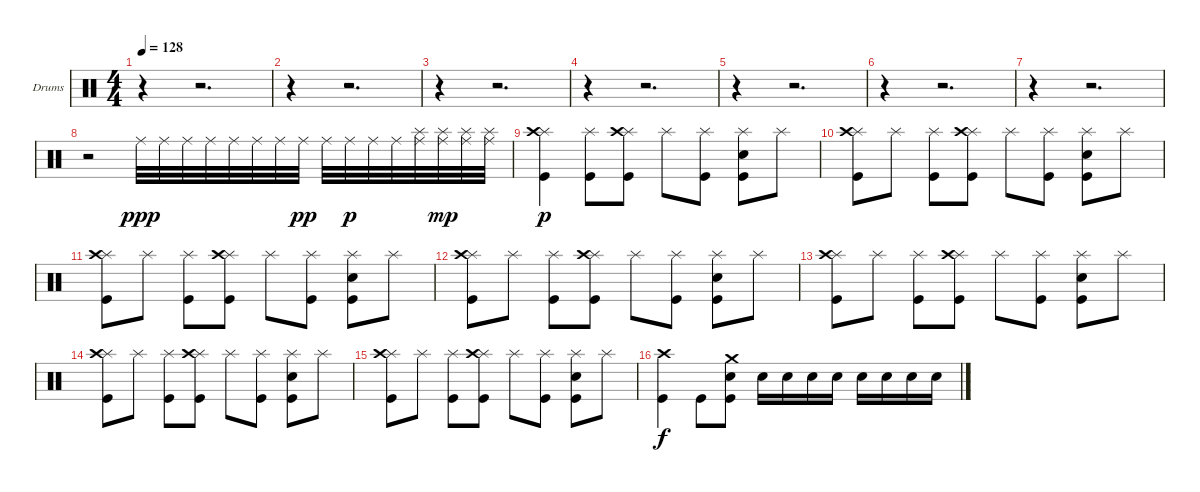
\defaultSystemsLayout 4
\bracketExtendMode nobrackets
\firstSystemTrackNameOrientation horizontal
\otherSystemsTrackNameOrientation horizontal
\track ("Dave Krusen" "Drums") {instrument percussion}
\staff {score}
\articulation defaults
\ts (4 4)
\tempo 128
\clef neutral
\ks c
r.4{dy f} r.2{d} |
r.4 r.2{d} |
r.4 r.2{d} |
r.4 r.2{d} |
r.4 r.2{d} |
r.4 r.2{d} |
r.4 r.2{d} |
r.2 "Ride (middle)".32{dy ppp} "Ride (middle)".32 "Ride (middle)".32 "Ride (middle)".32 "Ride (middle)".32 "Ride (middle)".32 "Ride (middle)".32 "Ride (middle)".32{dy pp} "Ride (middle)".32 "Ride (middle)".32{dy p} "Ride (middle)".32 "Ride (middle)".32 ("Splash (hit)" "Ride (middle)").32 ("Splash (hit)" "Ride (middle)").32{dy mp} ("Splash (hit)" "Ride (middle)").32 ("Splash (hit)" "Ride (middle)").32 |
("Splash (hit)" "Crash high (hit)" "Kick (hit)").4{dy p} ("Splash (hit)" "Kick (hit)").8 ("Splash (hit)" "Crash high (hit)" "Kick (hit)").8 "Splash (hit)".8 ("Splash (hit)" "Kick (hit)").8 ("Splash (hit)" "Snare (hit) 2" "Kick (hit)").8 "Splash (hit)".8 |
("Splash (hit)" "Crash high (hit)" "Kick (hit)").8 "Splash (hit)".8 ("Splash (hit)" "Kick (hit)").8 ("Splash (hit)" "Crash high (hit)" "Kick (hit)").8 "Splash (hit)".8 ("Splash (hit)" "Kick (hit)").8 ("Splash (hit)" "Snare (hit) 2" "Kick (hit)").8 "Splash (hit)".8 |
("Splash (hit)" "Crash high (hit)" "Kick (hit)").8 "Splash (hit)".8 ("Splash (hit)" "Kick (hit)").8 ("Splash (hit)" "Crash high (hit)" "Kick (hit)").8 "Splash (hit)".8 ("Splash (hit)" "Kick (hit)").8 ("Splash (hit)" "Snare (hit) 2" "Kick (hit)").8 "Splash (hit)".8 |
("Splash (hit)" "Crash high (hit)" "Kick (hit)").8 "Splash (hit)".8 ("Splash (hit)" "Kick (hit)").8 ("Splash (hit)" "Crash high (hit)" "Kick (hit)").8 "Splash (hit)".8 ("Splash (hit)" "Kick (hit)").8 ("Splash (hit)" "Snare (hit) 2" "Kick (hit)").8 "Splash (hit)".8 |
("Splash (hit)" "Crash high (hit)" "Kick (hit)").8 "Splash (hit)".8 ("Splash (hit)" "Kick (hit)").8 ("Splash (hit)" "Crash high (hit)" "Kick (hit)").8 "Splash (hit)".8 ("Splash (hit)" "Kick (hit)").8 ("Splash (hit)" "Snare (hit) 2" "Kick (hit)").8 "Splash (hit)".8 |
("Splash (hit)" "Crash high (hit)" "Kick (hit)").8 "Splash (hit)".8 ("Splash (hit)" "Kick (hit)").8 ("Splash (hit)" "Crash high (hit)" "Kick (hit)").8 "Splash (hit)".8 ("Splash (hit)" "Kick (hit)").8 ("Splash (hit)" "Snare (hit) 2" "Kick (hit)").8 "Splash (hit)".8 |
("Splash (hit)" "Crash high (hit)" "Kick (hit)").8 "Splash (hit)".8 ("Splash (hit)" "Kick (hit)").8 ("Splash (hit)" "Crash high (hit)" "Kick (hit)").8 "Splash (hit)".8 ("Splash (hit)" "Kick (hit)").8 ("Splash (hit)" "Snare (hit) 2" "Kick (hit)").8 "Splash (hit)".8 |
("Crash high (hit)" "Kick (hit)").4{dy f} "Kick (hit)".8 ("Crash medium (hit)" "Snare (hit) 2" "Kick (hit)").8 "Snare (hit) 2".16 "Snare (hit) 2".16 "Snare (hit) 2".16 "Snare (hit) 2".16 "Snare (hit) 2".16 "Snare (hit) 2".16 "Snare (hit) 2".16 "Snare (hit) 2".16
